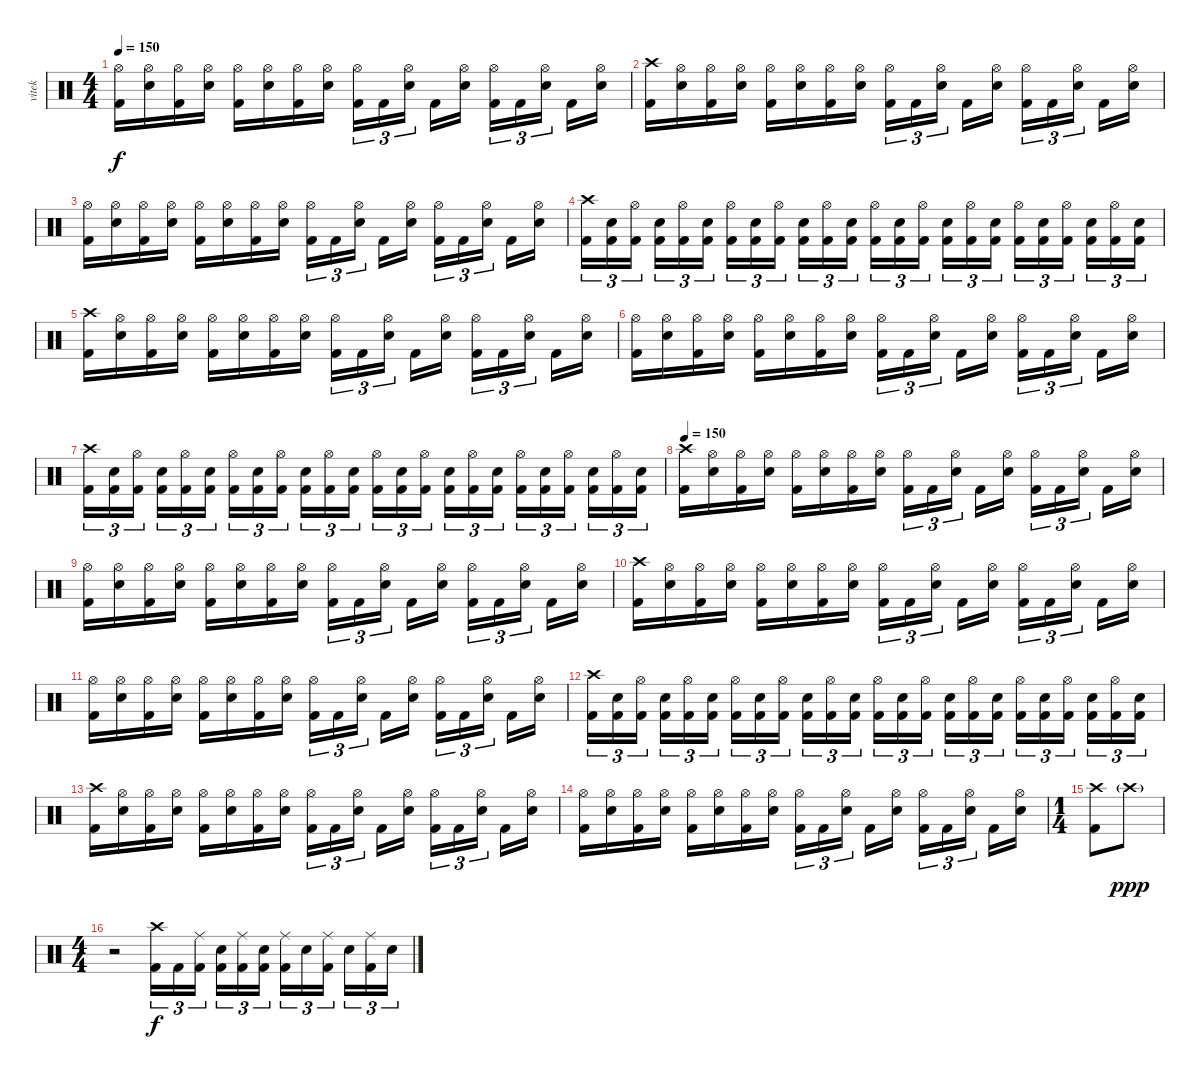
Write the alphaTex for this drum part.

\track ("vitek" "vitek") {instrument percussion}
\staff {score}
\articulation defaults
\ts (4 4)
\tempo 150
\clef neutral
\ks c
("Hi-Hat (open)" "Kick (hit) 2").16{dy f} ("Hi-Hat (open)" "Electric Snare (hit)").16 ("Hi-Hat (open)" "Kick (hit) 2").16 ("Hi-Hat (open)" "Electric Snare (hit)").16 ("Hi-Hat (open)" "Kick (hit) 2").16 ("Hi-Hat (open)" "Electric Snare (hit)").16 ("Hi-Hat (open)" "Kick (hit) 2").16 ("Hi-Hat (open)" "Electric Snare (hit)").16 ("Hi-Hat (open)" "Kick (hit) 2").16{tu (3 2)} "Kick (hit) 2".16{tu (3 2)} ("Hi-Hat (open)" "Electric Snare (hit)").16{tu (3 2)} "Kick (hit) 2".16 ("Hi-Hat (open)" "Electric Snare (hit)").16 ("Hi-Hat (open)" "Kick (hit) 2").16{tu (3 2)} "Kick (hit) 2".16{tu (3 2)} ("Hi-Hat (open)" "Electric Snare (hit)").16{tu (3 2)} "Kick (hit) 2".16 ("Hi-Hat (open)" "Electric Snare (hit)").16 |
("Crash high (hit)" "Kick (hit) 2").16 ("Hi-Hat (open)" "Electric Snare (hit)").16 ("Hi-Hat (open)" "Kick (hit) 2").16 ("Hi-Hat (open)" "Electric Snare (hit)").16 ("Hi-Hat (open)" "Kick (hit) 2").16 ("Hi-Hat (open)" "Electric Snare (hit)").16 ("Hi-Hat (open)" "Kick (hit) 2").16 ("Hi-Hat (open)" "Electric Snare (hit)").16 ("Hi-Hat (open)" "Kick (hit) 2").16{tu (3 2)} "Kick (hit) 2".16{tu (3 2)} ("Hi-Hat (open)" "Electric Snare (hit)").16{tu (3 2)} "Kick (hit) 2".16 ("Hi-Hat (open)" "Electric Snare (hit)").16 ("Hi-Hat (open)" "Kick (hit) 2").16{tu (3 2)} "Kick (hit) 2".16{tu (3 2)} ("Hi-Hat (open)" "Electric Snare (hit)").16{tu (3 2)} "Kick (hit) 2".16 ("Hi-Hat (open)" "Electric Snare (hit)").16 |
("Hi-Hat (open)" "Kick (hit) 2").16 ("Hi-Hat (open)" "Electric Snare (hit)").16 ("Hi-Hat (open)" "Kick (hit) 2").16 ("Hi-Hat (open)" "Electric Snare (hit)").16 ("Hi-Hat (open)" "Kick (hit) 2").16 ("Hi-Hat (open)" "Electric Snare (hit)").16 ("Hi-Hat (open)" "Kick (hit) 2").16 ("Hi-Hat (open)" "Electric Snare (hit)").16 ("Hi-Hat (open)" "Kick (hit) 2").16{tu (3 2)} "Kick (hit) 2".16{tu (3 2)} ("Hi-Hat (open)" "Electric Snare (hit)").16{tu (3 2)} "Kick (hit) 2".16 ("Hi-Hat (open)" "Electric Snare (hit)").16 ("Hi-Hat (open)" "Kick (hit) 2").16{tu (3 2)} "Kick (hit) 2".16{tu (3 2)} ("Hi-Hat (open)" "Electric Snare (hit)").16{tu (3 2)} "Kick (hit) 2".16 ("Hi-Hat (open)" "Electric Snare (hit)").16 |
("Crash high (hit)" "Kick (hit) 2").16{tu (3 2)} ("Electric Snare (hit)" "Kick (hit) 2").16{tu (3 2)} ("Hi-Hat (open)" "Kick (hit) 2").16{tu (3 2)} ("Electric Snare (hit)" "Kick (hit) 2").16{tu (3 2)} ("Hi-Hat (open)" "Kick (hit) 2").16{tu (3 2)} ("Electric Snare (hit)" "Kick (hit) 2").16{tu (3 2)} ("Hi-Hat (open)" "Kick (hit) 2").16{tu (3 2)} ("Electric Snare (hit)" "Kick (hit) 2").16{tu (3 2)} ("Hi-Hat (open)" "Kick (hit) 2").16{tu (3 2)} ("Electric Snare (hit)" "Kick (hit) 2").16{tu (3 2)} ("Hi-Hat (open)" "Kick (hit) 2").16{tu (3 2)} ("Electric Snare (hit)" "Kick (hit) 2").16{tu (3 2)} ("Hi-Hat (open)" "Kick (hit) 2").16{tu (3 2)} ("Electric Snare (hit)" "Kick (hit) 2").16{tu (3 2)} ("Hi-Hat (open)" "Kick (hit) 2").16{tu (3 2)} ("Electric Snare (hit)" "Kick (hit) 2").16{tu (3 2)} ("Hi-Hat (open)" "Kick (hit) 2").16{tu (3 2)} ("Electric Snare (hit)" "Kick (hit) 2").16{tu (3 2)} ("Hi-Hat (open)" "Kick (hit) 2").16{tu (3 2)} ("Electric Snare (hit)" "Kick (hit) 2").16{tu (3 2)} ("Hi-Hat (open)" "Kick (hit) 2").16{tu (3 2)} ("Electric Snare (hit)" "Kick (hit) 2").16{tu (3 2)} ("Hi-Hat (open)" "Kick (hit) 2").16{tu (3 2)} ("Electric Snare (hit)" "Kick (hit) 2").16{tu (3 2)} |
("Crash high (hit)" "Kick (hit) 2").16 ("Hi-Hat (open)" "Electric Snare (hit)").16 ("Hi-Hat (open)" "Kick (hit) 2").16 ("Hi-Hat (open)" "Electric Snare (hit)").16 ("Hi-Hat (open)" "Kick (hit) 2").16 ("Hi-Hat (open)" "Electric Snare (hit)").16 ("Hi-Hat (open)" "Kick (hit) 2").16 ("Hi-Hat (open)" "Electric Snare (hit)").16 ("Hi-Hat (open)" "Kick (hit) 2").16{tu (3 2)} "Kick (hit) 2".16{tu (3 2)} ("Hi-Hat (open)" "Electric Snare (hit)").16{tu (3 2)} "Kick (hit) 2".16 ("Hi-Hat (open)" "Electric Snare (hit)").16 ("Hi-Hat (open)" "Kick (hit) 2").16{tu (3 2)} "Kick (hit) 2".16{tu (3 2)} ("Hi-Hat (open)" "Electric Snare (hit)").16{tu (3 2)} "Kick (hit) 2".16 ("Hi-Hat (open)" "Electric Snare (hit)").16 |
("Hi-Hat (open)" "Kick (hit) 2").16 ("Hi-Hat (open)" "Electric Snare (hit)").16 ("Hi-Hat (open)" "Kick (hit) 2").16 ("Hi-Hat (open)" "Electric Snare (hit)").16 ("Hi-Hat (open)" "Kick (hit) 2").16 ("Hi-Hat (open)" "Electric Snare (hit)").16 ("Hi-Hat (open)" "Kick (hit) 2").16 ("Hi-Hat (open)" "Electric Snare (hit)").16 ("Hi-Hat (open)" "Kick (hit) 2").16{tu (3 2)} "Kick (hit) 2".16{tu (3 2)} ("Hi-Hat (open)" "Electric Snare (hit)").16{tu (3 2)} "Kick (hit) 2".16 ("Hi-Hat (open)" "Electric Snare (hit)").16 ("Hi-Hat (open)" "Kick (hit) 2").16{tu (3 2)} "Kick (hit) 2".16{tu (3 2)} ("Hi-Hat (open)" "Electric Snare (hit)").16{tu (3 2)} "Kick (hit) 2".16 ("Hi-Hat (open)" "Electric Snare (hit)").16 |
("Crash high (hit)" "Kick (hit) 2").16{tu (3 2)} ("Electric Snare (hit)" "Kick (hit) 2").16{tu (3 2)} ("Hi-Hat (open)" "Kick (hit) 2").16{tu (3 2)} ("Electric Snare (hit)" "Kick (hit) 2").16{tu (3 2)} ("Hi-Hat (open)" "Kick (hit) 2").16{tu (3 2)} ("Electric Snare (hit)" "Kick (hit) 2").16{tu (3 2)} ("Hi-Hat (open)" "Kick (hit) 2").16{tu (3 2)} ("Electric Snare (hit)" "Kick (hit) 2").16{tu (3 2)} ("Hi-Hat (open)" "Kick (hit) 2").16{tu (3 2)} ("Electric Snare (hit)" "Kick (hit) 2").16{tu (3 2)} ("Hi-Hat (open)" "Kick (hit) 2").16{tu (3 2)} ("Electric Snare (hit)" "Kick (hit) 2").16{tu (3 2)} ("Hi-Hat (open)" "Kick (hit) 2").16{tu (3 2)} ("Electric Snare (hit)" "Kick (hit) 2").16{tu (3 2)} ("Hi-Hat (open)" "Kick (hit) 2").16{tu (3 2)} ("Electric Snare (hit)" "Kick (hit) 2").16{tu (3 2)} ("Hi-Hat (open)" "Kick (hit) 2").16{tu (3 2)} ("Electric Snare (hit)" "Kick (hit) 2").16{tu (3 2)} ("Hi-Hat (open)" "Kick (hit) 2").16{tu (3 2)} ("Electric Snare (hit)" "Kick (hit) 2").16{tu (3 2)} ("Hi-Hat (open)" "Kick (hit) 2").16{tu (3 2)} ("Electric Snare (hit)" "Kick (hit) 2").16{tu (3 2)} ("Hi-Hat (open)" "Kick (hit) 2").16{tu (3 2)} ("Electric Snare (hit)" "Kick (hit) 2").16{tu (3 2)} |
\tempo 150
("Crash high (hit)" "Kick (hit) 2").16 ("Hi-Hat (open)" "Electric Snare (hit)").16 ("Hi-Hat (open)" "Kick (hit) 2").16 ("Hi-Hat (open)" "Electric Snare (hit)").16 ("Hi-Hat (open)" "Kick (hit) 2").16 ("Hi-Hat (open)" "Electric Snare (hit)").16 ("Hi-Hat (open)" "Kick (hit) 2").16 ("Hi-Hat (open)" "Electric Snare (hit)").16 ("Hi-Hat (open)" "Kick (hit) 2").16{tu (3 2)} "Kick (hit) 2".16{tu (3 2)} ("Hi-Hat (open)" "Electric Snare (hit)").16{tu (3 2)} "Kick (hit) 2".16 ("Hi-Hat (open)" "Electric Snare (hit)").16 ("Hi-Hat (open)" "Kick (hit) 2").16{tu (3 2)} "Kick (hit) 2".16{tu (3 2)} ("Hi-Hat (open)" "Electric Snare (hit)").16{tu (3 2)} "Kick (hit) 2".16 ("Hi-Hat (open)" "Electric Snare (hit)").16 |
("Hi-Hat (open)" "Kick (hit) 2").16 ("Hi-Hat (open)" "Electric Snare (hit)").16 ("Hi-Hat (open)" "Kick (hit) 2").16 ("Hi-Hat (open)" "Electric Snare (hit)").16 ("Hi-Hat (open)" "Kick (hit) 2").16 ("Hi-Hat (open)" "Electric Snare (hit)").16 ("Hi-Hat (open)" "Kick (hit) 2").16 ("Hi-Hat (open)" "Electric Snare (hit)").16 ("Hi-Hat (open)" "Kick (hit) 2").16{tu (3 2)} "Kick (hit) 2".16{tu (3 2)} ("Hi-Hat (open)" "Electric Snare (hit)").16{tu (3 2)} "Kick (hit) 2".16 ("Hi-Hat (open)" "Electric Snare (hit)").16 ("Hi-Hat (open)" "Kick (hit) 2").16{tu (3 2)} "Kick (hit) 2".16{tu (3 2)} ("Hi-Hat (open)" "Electric Snare (hit)").16{tu (3 2)} "Kick (hit) 2".16 ("Hi-Hat (open)" "Electric Snare (hit)").16 |
("Crash high (hit)" "Kick (hit) 2").16 ("Hi-Hat (open)" "Electric Snare (hit)").16 ("Hi-Hat (open)" "Kick (hit) 2").16 ("Hi-Hat (open)" "Electric Snare (hit)").16 ("Hi-Hat (open)" "Kick (hit) 2").16 ("Hi-Hat (open)" "Electric Snare (hit)").16 ("Hi-Hat (open)" "Kick (hit) 2").16 ("Hi-Hat (open)" "Electric Snare (hit)").16 ("Hi-Hat (open)" "Kick (hit) 2").16{tu (3 2)} "Kick (hit) 2".16{tu (3 2)} ("Hi-Hat (open)" "Electric Snare (hit)").16{tu (3 2)} "Kick (hit) 2".16 ("Hi-Hat (open)" "Electric Snare (hit)").16 ("Hi-Hat (open)" "Kick (hit) 2").16{tu (3 2)} "Kick (hit) 2".16{tu (3 2)} ("Hi-Hat (open)" "Electric Snare (hit)").16{tu (3 2)} "Kick (hit) 2".16 ("Hi-Hat (open)" "Electric Snare (hit)").16 |
("Hi-Hat (open)" "Kick (hit) 2").16 ("Hi-Hat (open)" "Electric Snare (hit)").16 ("Hi-Hat (open)" "Kick (hit) 2").16 ("Hi-Hat (open)" "Electric Snare (hit)").16 ("Hi-Hat (open)" "Kick (hit) 2").16 ("Hi-Hat (open)" "Electric Snare (hit)").16 ("Hi-Hat (open)" "Kick (hit) 2").16 ("Hi-Hat (open)" "Electric Snare (hit)").16 ("Hi-Hat (open)" "Kick (hit) 2").16{tu (3 2)} "Kick (hit) 2".16{tu (3 2)} ("Hi-Hat (open)" "Electric Snare (hit)").16{tu (3 2)} "Kick (hit) 2".16 ("Hi-Hat (open)" "Electric Snare (hit)").16 ("Hi-Hat (open)" "Kick (hit) 2").16{tu (3 2)} "Kick (hit) 2".16{tu (3 2)} ("Hi-Hat (open)" "Electric Snare (hit)").16{tu (3 2)} "Kick (hit) 2".16 ("Hi-Hat (open)" "Electric Snare (hit)").16 |
("Crash high (hit)" "Kick (hit) 2").16{tu (3 2)} ("Electric Snare (hit)" "Kick (hit) 2").16{tu (3 2)} ("Hi-Hat (open)" "Kick (hit) 2").16{tu (3 2)} ("Electric Snare (hit)" "Kick (hit) 2").16{tu (3 2)} ("Hi-Hat (open)" "Kick (hit) 2").16{tu (3 2)} ("Electric Snare (hit)" "Kick (hit) 2").16{tu (3 2)} ("Hi-Hat (open)" "Kick (hit) 2").16{tu (3 2)} ("Electric Snare (hit)" "Kick (hit) 2").16{tu (3 2)} ("Hi-Hat (open)" "Kick (hit) 2").16{tu (3 2)} ("Electric Snare (hit)" "Kick (hit) 2").16{tu (3 2)} ("Hi-Hat (open)" "Kick (hit) 2").16{tu (3 2)} ("Electric Snare (hit)" "Kick (hit) 2").16{tu (3 2)} ("Hi-Hat (open)" "Kick (hit) 2").16{tu (3 2)} ("Electric Snare (hit)" "Kick (hit) 2").16{tu (3 2)} ("Hi-Hat (open)" "Kick (hit) 2").16{tu (3 2)} ("Electric Snare (hit)" "Kick (hit) 2").16{tu (3 2)} ("Hi-Hat (open)" "Kick (hit) 2").16{tu (3 2)} ("Electric Snare (hit)" "Kick (hit) 2").16{tu (3 2)} ("Hi-Hat (open)" "Kick (hit) 2").16{tu (3 2)} ("Electric Snare (hit)" "Kick (hit) 2").16{tu (3 2)} ("Hi-Hat (open)" "Kick (hit) 2").16{tu (3 2)} ("Electric Snare (hit)" "Kick (hit) 2").16{tu (3 2)} ("Hi-Hat (open)" "Kick (hit) 2").16{tu (3 2)} ("Electric Snare (hit)" "Kick (hit) 2").16{tu (3 2)} |
("Crash high (hit)" "Kick (hit) 2").16 ("Hi-Hat (open)" "Electric Snare (hit)").16 ("Hi-Hat (open)" "Kick (hit) 2").16 ("Hi-Hat (open)" "Electric Snare (hit)").16 ("Hi-Hat (open)" "Kick (hit) 2").16 ("Hi-Hat (open)" "Electric Snare (hit)").16 ("Hi-Hat (open)" "Kick (hit) 2").16 ("Hi-Hat (open)" "Electric Snare (hit)").16 ("Hi-Hat (open)" "Kick (hit) 2").16{tu (3 2)} "Kick (hit) 2".16{tu (3 2)} ("Hi-Hat (open)" "Electric Snare (hit)").16{tu (3 2)} "Kick (hit) 2".16 ("Hi-Hat (open)" "Electric Snare (hit)").16 ("Hi-Hat (open)" "Kick (hit) 2").16{tu (3 2)} "Kick (hit) 2".16{tu (3 2)} ("Hi-Hat (open)" "Electric Snare (hit)").16{tu (3 2)} "Kick (hit) 2".16 ("Hi-Hat (open)" "Electric Snare (hit)").16 |
("Hi-Hat (open)" "Kick (hit) 2").16 ("Hi-Hat (open)" "Electric Snare (hit)").16 ("Hi-Hat (open)" "Kick (hit) 2").16 ("Hi-Hat (open)" "Electric Snare (hit)").16 ("Hi-Hat (open)" "Kick (hit) 2").16 ("Hi-Hat (open)" "Electric Snare (hit)").16 ("Hi-Hat (open)" "Kick (hit) 2").16 ("Hi-Hat (open)" "Electric Snare (hit)").16 ("Hi-Hat (open)" "Kick (hit) 2").16{tu (3 2)} "Kick (hit) 2".16{tu (3 2)} ("Hi-Hat (open)" "Electric Snare (hit)").16{tu (3 2)} "Kick (hit) 2".16 ("Hi-Hat (open)" "Electric Snare (hit)").16 ("Hi-Hat (open)" "Kick (hit) 2").16{tu (3 2)} "Kick (hit) 2".16{tu (3 2)} ("Hi-Hat (open)" "Electric Snare (hit)").16{tu (3 2)} "Kick (hit) 2".16 ("Hi-Hat (open)" "Electric Snare (hit)").16 |
\ts (1 4)
("Crash high (hit)"{pm} "Kick (hit) 2").8 "Crash high (hit)"{g}.8{dy ppp} |
\ts (4 4)
\section ("" "")
r.2 ("Crash high (hit)" "Kick (hit) 2").16{tu (3 2) dy f} "Kick (hit) 2".16{tu (3 2)} ("Ride (middle)" "Kick (hit) 2").16{tu (3 2)} ("Electric Snare (hit)" "Kick (hit) 2").16{tu (3 2)} ("Ride (middle)" "Kick (hit) 2").16{tu (3 2)} ("Electric Snare (hit)" "Kick (hit) 2").16{tu (3 2)} ("Ride (middle)" "Kick (hit) 2").16{tu (3 2)} "Electric Snare (hit)".16{tu (3 2)} ("Ride (middle)" "Kick (hit) 2").16{tu (3 2)} "Electric Snare (hit)".16{tu (3 2)} ("Ride (middle)" "Kick (hit) 2").16{tu (3 2)} "Electric Snare (hit)".16{tu (3 2)}
